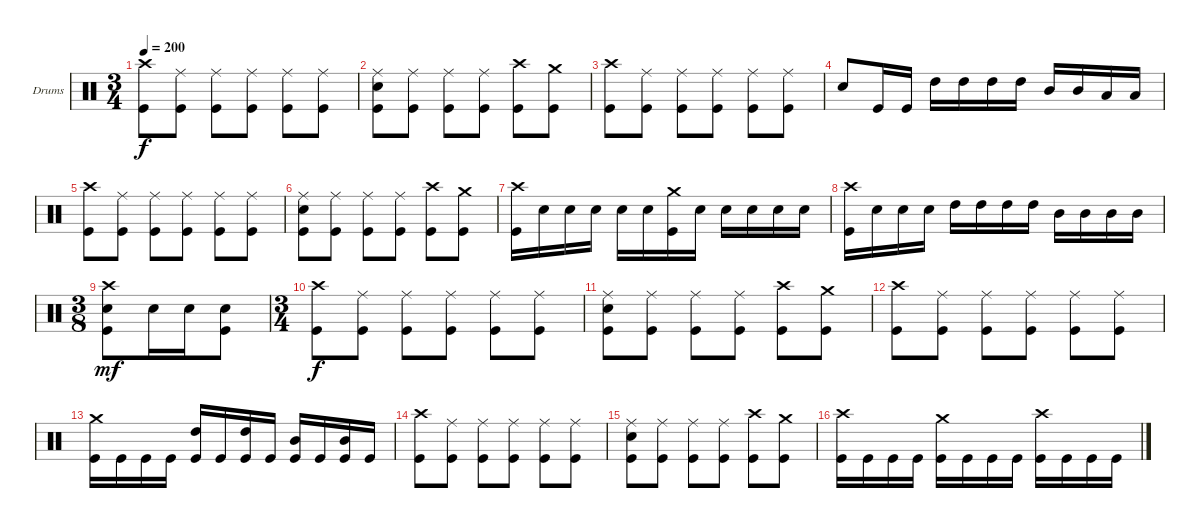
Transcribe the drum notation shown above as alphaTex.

\bracketExtendMode groupsimilarinstruments
\firstSystemTrackNameOrientation horizontal
\otherSystemsTrackNameOrientation horizontal
\track ("Drumkit" "Drums") {instrument percussion}
\staff {score}
\articulation defaults
\ts (3 4)
\tempo 200
\clef neutral
\ks c
("Crash high (hit)" "Kick (hit)").8{dy f} ("Ride (middle)" "Kick (hit)").8 ("Ride (middle)" "Kick (hit)").8 ("Ride (middle)" "Kick (hit)").8 ("Ride (middle)" "Kick (hit)").8 ("Ride (middle)" "Kick (hit)").8 |
("Ride (middle)" "Snare (hit) 2" "Kick (hit)").8 ("Ride (middle)" "Kick (hit)").8 ("Ride (middle)" "Kick (hit)").8 ("Ride (middle)" "Kick (hit)").8 ("Crash high (hit)" "Kick (hit)").8 ("Crash medium (hit)" "Kick (hit)").8 |
("Crash high (hit)" "Kick (hit)").8 ("Ride (middle)" "Kick (hit)").8 ("Ride (middle)" "Kick (hit)").8 ("Ride (middle)" "Kick (hit)").8 ("Ride (middle)" "Kick (hit)").8 ("Ride (middle)" "Kick (hit)").8 |
"Snare (hit) 2".8 "Kick (hit)".16 "Kick (hit)".16 "High Tom (hit)".16 "High Tom (hit)".16 "High Tom (hit)".16 "High Tom (hit)".16 "Mid Tom (hit)".16 "Mid Tom (hit)".16 "Low Tom (hit)".16 "Low Tom (hit)".16 |
("Crash high (hit)" "Kick (hit)").8 ("Ride (middle)" "Kick (hit)").8 ("Ride (middle)" "Kick (hit)").8 ("Ride (middle)" "Kick (hit)").8 ("Ride (middle)" "Kick (hit)").8 ("Ride (middle)" "Kick (hit)").8 |
("Ride (middle)" "Snare (hit) 2" "Kick (hit)").8 ("Ride (middle)" "Kick (hit)").8 ("Ride (middle)" "Kick (hit)").8 ("Ride (middle)" "Kick (hit)").8 ("Crash high (hit)" "Kick (hit)").8 ("Crash medium (hit)" "Kick (hit)").8 |
("Crash high (hit)" "Kick (hit)").16 "Snare (hit) 2".16 "Snare (hit) 2".16 "Snare (hit) 2".16 "Snare (hit) 2".16 "Snare (hit) 2".16 ("Crash medium (hit)" "Kick (hit)").16 "Snare (hit) 2".16 "Snare (hit) 2".16 "Snare (hit) 2".16 "Snare (hit) 2".16 "Snare (hit) 2".16 |
("Crash high (hit)" "Kick (hit)").16 "Snare (hit) 2".16 "Snare (hit) 2".16 "Snare (hit) 2".16 "High Tom (hit)".16 "High Tom (hit)".16 "High Tom (hit)".16 "High Tom (hit)".16 "Mid Tom (hit)".16 "Mid Tom (hit)".16 "Mid Tom (hit)".16 "Mid Tom (hit)".16 |
\ts (3 8)
("Snare (hit) 2" "Kick (hit)" "Crash high (hit)").8{dy mf} "Snare (hit) 2".16 "Snare (hit) 2".16 ("Snare (hit) 2" "Kick (hit)").8 |
\ts (3 4)
("Crash high (hit)" "Kick (hit)").8{dy f} ("Ride (middle)" "Kick (hit)").8 ("Ride (middle)" "Kick (hit)").8 ("Ride (middle)" "Kick (hit)").8 ("Ride (middle)" "Kick (hit)").8 ("Ride (middle)" "Kick (hit)").8 |
("Ride (middle)" "Snare (hit) 2" "Kick (hit)").8 ("Ride (middle)" "Kick (hit)").8 ("Ride (middle)" "Kick (hit)").8 ("Ride (middle)" "Kick (hit)").8 ("Crash high (hit)" "Kick (hit)").8 ("Crash medium (hit)" "Kick (hit)").8 |
("Crash high (hit)" "Kick (hit)").8 ("Ride (middle)" "Kick (hit)").8 ("Ride (middle)" "Kick (hit)").8 ("Ride (middle)" "Kick (hit)").8 ("Ride (middle)" "Kick (hit)").8 ("Ride (middle)" "Kick (hit)").8 |
("Crash medium (hit)" "Kick (hit)").16 "Kick (hit)".16 "Kick (hit)".16 "Kick (hit)".16 ("High Tom (hit)" "Kick (hit)").16 "Kick (hit)".16 ("High Tom (hit)" "Kick (hit)").16 "Kick (hit)".16 ("Mid Tom (hit)" "Kick (hit)").16 "Kick (hit)".16 ("Mid Tom (hit)" "Kick (hit)").16 "Kick (hit)".16 |
("Crash high (hit)" "Kick (hit)").8 ("Ride (middle)" "Kick (hit)").8 ("Ride (middle)" "Kick (hit)").8 ("Ride (middle)" "Kick (hit)").8 ("Ride (middle)" "Kick (hit)").8 ("Ride (middle)" "Kick (hit)").8 |
("Ride (middle)" "Snare (hit) 2" "Kick (hit)").8 ("Ride (middle)" "Kick (hit)").8 ("Ride (middle)" "Kick (hit)").8 ("Ride (middle)" "Kick (hit)").8 ("Crash high (hit)" "Kick (hit)").8 ("Crash medium (hit)" "Kick (hit)").8 |
("Crash high (hit)" "Kick (hit)").16 "Kick (hit)".16 "Kick (hit)".16 "Kick (hit)".16 ("Crash medium (hit)" "Kick (hit)").16 "Kick (hit)".16 "Kick (hit)".16 "Kick (hit)".16 ("Crash high (hit)" "Kick (hit)").16 "Kick (hit)".16 "Kick (hit)".16 "Kick (hit)".16
